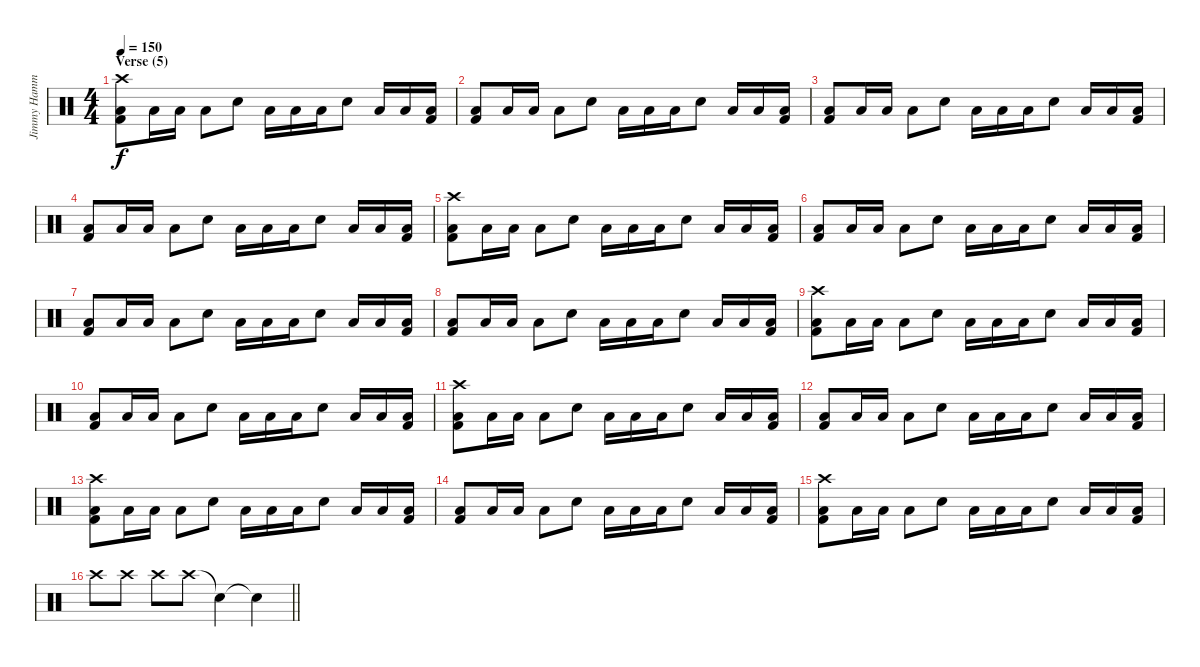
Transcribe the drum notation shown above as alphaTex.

\track ("Jimmy Hammer" "Jimmy Hamm") {instrument percussion}
\staff {score}
\articulation defaults
\ts (4 4)
\section ("" "Verse (5)")
\tempo 150
\clef neutral
\ks c
("Crash high (hit)" "Low Floor Tom (hit)" "Kick (hit) 2").8{dy f} "Low Floor Tom (hit)".16 "Low Floor Tom (hit)".16 "Low Floor Tom (hit)".8 "Electric Snare (hit)".8 "Low Floor Tom (hit)".16 "Low Floor Tom (hit)".16 "Low Floor Tom (hit)".16 "Electric Snare (hit)".8 "Low Floor Tom (hit)".16 "Low Floor Tom (hit)".16 ("Low Floor Tom (hit)" "Kick (hit) 2").16 |
("Low Floor Tom (hit)" "Kick (hit) 2").8 "Low Floor Tom (hit)".16 "Low Floor Tom (hit)".16 "Low Floor Tom (hit)".8 "Electric Snare (hit)".8 "Low Floor Tom (hit)".16 "Low Floor Tom (hit)".16 "Low Floor Tom (hit)".16 "Electric Snare (hit)".8 "Low Floor Tom (hit)".16 "Low Floor Tom (hit)".16 ("Low Floor Tom (hit)" "Kick (hit) 2").16 |
("Low Floor Tom (hit)" "Kick (hit) 2").8 "Low Floor Tom (hit)".16 "Low Floor Tom (hit)".16 "Low Floor Tom (hit)".8 "Electric Snare (hit)".8 "Low Floor Tom (hit)".16 "Low Floor Tom (hit)".16 "Low Floor Tom (hit)".16 "Electric Snare (hit)".8 "Low Floor Tom (hit)".16 "Low Floor Tom (hit)".16 ("Low Floor Tom (hit)" "Kick (hit) 2").16 |
("Low Floor Tom (hit)" "Kick (hit) 2").8 "Low Floor Tom (hit)".16 "Low Floor Tom (hit)".16 "Low Floor Tom (hit)".8 "Electric Snare (hit)".8 "Low Floor Tom (hit)".16 "Low Floor Tom (hit)".16 "Low Floor Tom (hit)".16 "Electric Snare (hit)".8 "Low Floor Tom (hit)".16 "Low Floor Tom (hit)".16 ("Low Floor Tom (hit)" "Kick (hit) 2").16 |
("Crash high (hit)" "Low Floor Tom (hit)" "Kick (hit) 2").8 "Low Floor Tom (hit)".16 "Low Floor Tom (hit)".16 "Low Floor Tom (hit)".8 "Electric Snare (hit)".8 "Low Floor Tom (hit)".16 "Low Floor Tom (hit)".16 "Low Floor Tom (hit)".16 "Electric Snare (hit)".8 "Low Floor Tom (hit)".16 "Low Floor Tom (hit)".16 ("Low Floor Tom (hit)" "Kick (hit) 2").16 |
("Low Floor Tom (hit)" "Kick (hit) 2").8 "Low Floor Tom (hit)".16 "Low Floor Tom (hit)".16 "Low Floor Tom (hit)".8 "Electric Snare (hit)".8 "Low Floor Tom (hit)".16 "Low Floor Tom (hit)".16 "Low Floor Tom (hit)".16 "Electric Snare (hit)".8 "Low Floor Tom (hit)".16 "Low Floor Tom (hit)".16 ("Low Floor Tom (hit)" "Kick (hit) 2").16 |
("Low Floor Tom (hit)" "Kick (hit) 2").8 "Low Floor Tom (hit)".16 "Low Floor Tom (hit)".16 "Low Floor Tom (hit)".8 "Electric Snare (hit)".8 "Low Floor Tom (hit)".16 "Low Floor Tom (hit)".16 "Low Floor Tom (hit)".16 "Electric Snare (hit)".8 "Low Floor Tom (hit)".16 "Low Floor Tom (hit)".16 ("Low Floor Tom (hit)" "Kick (hit) 2").16 |
("Low Floor Tom (hit)" "Kick (hit) 2").8 "Low Floor Tom (hit)".16 "Low Floor Tom (hit)".16 "Low Floor Tom (hit)".8 "Electric Snare (hit)".8 "Low Floor Tom (hit)".16 "Low Floor Tom (hit)".16 "Low Floor Tom (hit)".16 "Electric Snare (hit)".8 "Low Floor Tom (hit)".16 "Low Floor Tom (hit)".16 ("Low Floor Tom (hit)" "Kick (hit) 2").16 |
("Crash high (hit)" "Low Floor Tom (hit)" "Kick (hit) 2").8 "Low Floor Tom (hit)".16 "Low Floor Tom (hit)".16 "Low Floor Tom (hit)".8 "Electric Snare (hit)".8 "Low Floor Tom (hit)".16 "Low Floor Tom (hit)".16 "Low Floor Tom (hit)".16 "Electric Snare (hit)".8 "Low Floor Tom (hit)".16 "Low Floor Tom (hit)".16 ("Low Floor Tom (hit)" "Kick (hit) 2").16 |
("Low Floor Tom (hit)" "Kick (hit) 2").8 "Low Floor Tom (hit)".16 "Low Floor Tom (hit)".16 "Low Floor Tom (hit)".8 "Electric Snare (hit)".8 "Low Floor Tom (hit)".16 "Low Floor Tom (hit)".16 "Low Floor Tom (hit)".16 "Electric Snare (hit)".8 "Low Floor Tom (hit)".16 "Low Floor Tom (hit)".16 ("Low Floor Tom (hit)" "Kick (hit) 2").16 |
("Crash high (hit)" "Low Floor Tom (hit)" "Kick (hit) 2").8 "Low Floor Tom (hit)".16 "Low Floor Tom (hit)".16 "Low Floor Tom (hit)".8 "Electric Snare (hit)".8 "Low Floor Tom (hit)".16 "Low Floor Tom (hit)".16 "Low Floor Tom (hit)".16 "Electric Snare (hit)".8 "Low Floor Tom (hit)".16 "Low Floor Tom (hit)".16 ("Low Floor Tom (hit)" "Kick (hit) 2").16 |
("Low Floor Tom (hit)" "Kick (hit) 2").8 "Low Floor Tom (hit)".16 "Low Floor Tom (hit)".16 "Low Floor Tom (hit)".8 "Electric Snare (hit)".8 "Low Floor Tom (hit)".16 "Low Floor Tom (hit)".16 "Low Floor Tom (hit)".16 "Electric Snare (hit)".8 "Low Floor Tom (hit)".16 "Low Floor Tom (hit)".16 ("Low Floor Tom (hit)" "Kick (hit) 2").16 |
("Crash high (hit)" "Low Floor Tom (hit)" "Kick (hit) 2").8 "Low Floor Tom (hit)".16 "Low Floor Tom (hit)".16 "Low Floor Tom (hit)".8 "Electric Snare (hit)".8 "Low Floor Tom (hit)".16 "Low Floor Tom (hit)".16 "Low Floor Tom (hit)".16 "Electric Snare (hit)".8 "Low Floor Tom (hit)".16 "Low Floor Tom (hit)".16 ("Low Floor Tom (hit)" "Kick (hit) 2").16 |
("Low Floor Tom (hit)" "Kick (hit) 2").8 "Low Floor Tom (hit)".16 "Low Floor Tom (hit)".16 "Low Floor Tom (hit)".8 "Electric Snare (hit)".8 "Low Floor Tom (hit)".16 "Low Floor Tom (hit)".16 "Low Floor Tom (hit)".16 "Electric Snare (hit)".8 "Low Floor Tom (hit)".16 "Low Floor Tom (hit)".16 ("Low Floor Tom (hit)" "Kick (hit) 2").16 |
("Crash high (hit)" "Low Floor Tom (hit)" "Kick (hit) 2").8 "Low Floor Tom (hit)".16 "Low Floor Tom (hit)".16 "Low Floor Tom (hit)".8 "Electric Snare (hit)".8 "Low Floor Tom (hit)".16 "Low Floor Tom (hit)".16 "Low Floor Tom (hit)".16 "Electric Snare (hit)".8 "Low Floor Tom (hit)".16 "Low Floor Tom (hit)".16 ("Low Floor Tom (hit)" "Kick (hit) 2").16 |
\barLineRight lightlight "Crash high (hit)".8 "Crash high (hit)".8 "Crash high (hit)".8 "Crash high (hit)".8 "Snare (hit)"{t}.4 "Snare (hit)"{t}.4
